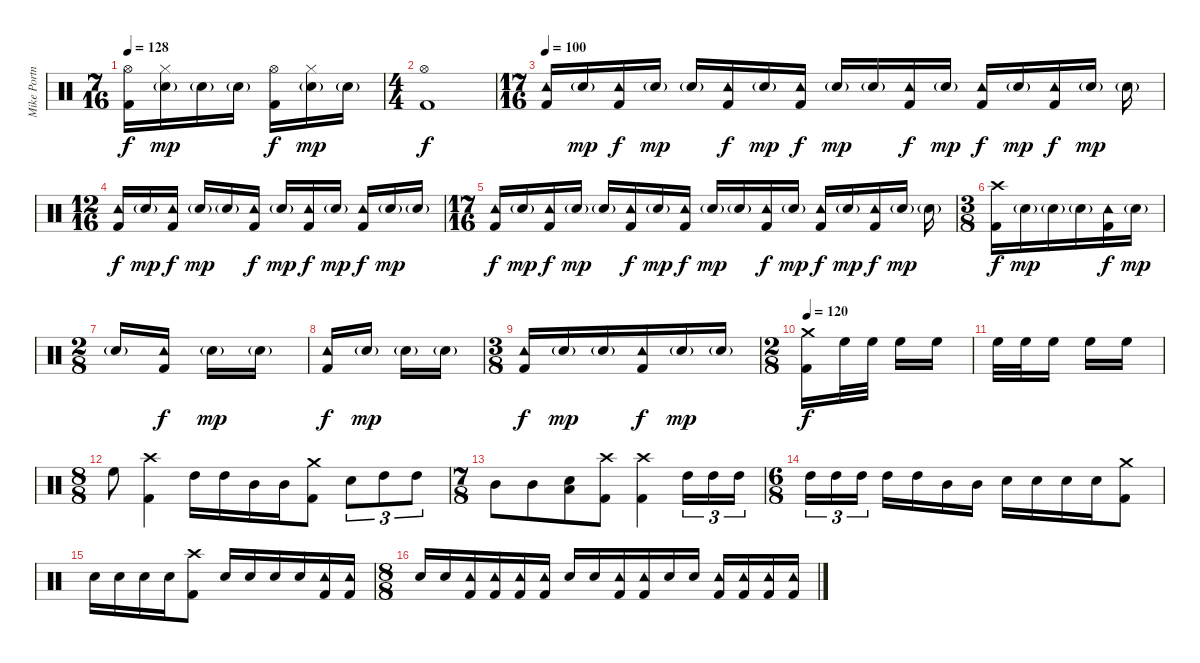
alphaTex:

\track ("Mike Portnoy" "Mike Portn") {instrument percussion}
\staff {score}
\articulation defaults
\ts (7 16)
\tempo 128
\clef neutral
\ks c
("Hi-Hat (open)" "Kick (hit) 2").16{dy f} ("Hi-Hat (closed)" "Snare (hit) 2"{g}).16{dy mp} "Snare (hit) 2"{g}.16 "Snare (hit) 2"{g}.16 ("Hi-Hat (open)" "Kick (hit) 2").16{dy f} ("Hi-Hat (closed)" "Snare (hit) 2"{g}).16{dy mp} "Snare (hit) 2"{g}.16 |
\ts (4 4)
("Hi-Hat (open)" "Kick (hit) 2").1{dy f} |
\ts (17 16)
\tempo 100
("Tambourine (hit)" "Kick (hit) 2").16 "Snare (hit) 2"{g}.16{dy mp} ("Tambourine (hit)" "Kick (hit) 2").16{dy f} "Snare (hit) 2"{g}.16{dy mp} "Snare (hit) 2"{g}.16 ("Tambourine (hit)" "Kick (hit) 2").16{dy f} "Snare (hit) 2"{g}.16{dy mp} ("Tambourine (hit)" "Kick (hit) 2").16{dy f} "Snare (hit) 2"{g}.16{dy mp} "Snare (hit) 2"{g}.16 ("Tambourine (hit)" "Kick (hit) 2").16{dy f} "Snare (hit) 2"{g}.16{dy mp} ("Tambourine (hit)" "Kick (hit) 2").16{dy f} "Snare (hit) 2"{g}.16{dy mp} ("Tambourine (hit)" "Kick (hit) 2").16{dy f} "Snare (hit) 2"{g}.16{dy mp} "Snare (hit) 2"{g}.16 |
\ts (12 16)
("Tambourine (hit)" "Kick (hit) 2").16{dy f} "Snare (hit) 2"{g}.16{dy mp} ("Tambourine (hit)" "Kick (hit) 2").16{dy f} "Snare (hit) 2"{g}.16{dy mp} "Snare (hit) 2"{g}.16 ("Tambourine (hit)" "Kick (hit) 2").16{dy f} "Snare (hit) 2"{g}.16{dy mp} ("Tambourine (hit)" "Kick (hit) 2").16{dy f} "Snare (hit) 2"{g}.16{dy mp} ("Tambourine (hit)" "Kick (hit) 2").16{dy f} "Snare (hit) 2"{g}.16{dy mp} "Snare (hit) 2"{g}.16 |
\ts (17 16)
("Tambourine (hit)" "Kick (hit) 2").16{dy f} "Snare (hit) 2"{g}.16{dy mp} ("Tambourine (hit)" "Kick (hit) 2").16{dy f} "Snare (hit) 2"{g}.16{dy mp} "Snare (hit) 2"{g}.16 ("Tambourine (hit)" "Kick (hit) 2").16{dy f} "Snare (hit) 2"{g}.16{dy mp} ("Tambourine (hit)" "Kick (hit) 2").16{dy f} "Snare (hit) 2"{g}.16{dy mp} "Snare (hit) 2"{g}.16 ("Tambourine (hit)" "Kick (hit) 2").16{dy f} "Snare (hit) 2"{g}.16{dy mp} ("Tambourine (hit)" "Kick (hit) 2").16{dy f} "Snare (hit) 2"{g}.16{dy mp} ("Tambourine (hit)" "Kick (hit) 2").16{dy f} "Snare (hit) 2"{g}.16{dy mp} "Snare (hit) 2"{g}.16 |
\ts (3 8)
("Crash high (hit)" "Kick (hit) 2").16{dy f} "Snare (hit) 2"{g}.16{dy mp} "Snare (hit) 2"{g}.16 "Snare (hit) 2"{g}.16 ("Tambourine (hit)" "Kick (hit) 2").16{dy f} "Snare (hit) 2"{g}.16{dy mp} |
\ts (2 8)
"Snare (hit) 2"{g}.16 ("Tambourine (hit)" "Kick (hit) 2").16{dy f} "Snare (hit) 2"{g}.16{dy mp} "Snare (hit) 2"{g}.16 |
("Tambourine (hit)" "Kick (hit) 2").16{dy f} "Snare (hit) 2"{g}.16{dy mp} "Snare (hit) 2"{g}.16 "Snare (hit) 2"{g}.16 |
\ts (3 8)
("Tambourine (hit)" "Kick (hit) 2").16{dy f} "Snare (hit) 2"{g}.16{dy mp} "Snare (hit) 2"{g}.16 ("Tambourine (hit)" "Kick (hit) 2").16{dy f} "Snare (hit) 2"{g}.16{dy mp} "Snare (hit) 2"{g}.16 |
\ts (2 8)
\tempo 120
("Crash medium (hit)" "Kick (hit) 2").16{dy f} "High Floor Tom (hit)".32 "High Floor Tom (hit)".32 "High Floor Tom (hit)".16 "High Floor Tom (hit)".16 |
"High Floor Tom (hit)".32 "High Floor Tom (hit)".32 "High Floor Tom (hit)".16 "High Floor Tom (hit)".16 "High Floor Tom (hit)".16 |
\ts (8 8)
"High Floor Tom (hit)".8 ("Crash high (hit)" "Kick (hit) 2").4 "High Tom (hit)".16 "High Tom (hit)".16 "Mid Tom (hit)".16 "Mid Tom (hit)".16 ("Crash medium (hit)" "Kick (hit) 2").8 "Snare (hit) 2".8{tu (3 2)} "High Tom (hit)".8{tu (3 2)} "High Tom (hit)".8{tu (3 2)} |
\ts (7 8)
"Mid Tom (hit)".8 "Mid Tom (hit)".8 ("Low Tom (hit)" "Snare (hit) 2").8 ("Crash high (hit)" "Kick (hit) 2").8 ("Crash high (hit)" "Kick (hit) 2").4 "High Tom (hit)".16{tu (3 2)} "High Tom (hit)".16{tu (3 2)} "High Tom (hit)".16{tu (3 2)} |
\ts (6 8)
"High Tom (hit)".16{tu (3 2)} "High Tom (hit)".16{tu (3 2)} "High Tom (hit)".16{tu (3 2)} "High Tom (hit)".16 "High Tom (hit)".16 "Mid Tom (hit)".16 "Mid Tom (hit)".16 "Snare (hit) 2".16 "Snare (hit) 2".16 "Snare (hit) 2".16 "Snare (hit) 2".16 ("Crash medium (hit)" "Kick (hit) 2").8 |
"Snare (hit) 2".16 "Snare (hit) 2".16 "Snare (hit) 2".16 "Snare (hit) 2".16 ("Crash high (hit)" "Kick (hit) 2").8 "Snare (hit) 2".16 "Snare (hit) 2".16 "Snare (hit) 2".16 "Snare (hit) 2".16 ("Tambourine (hit)" "Kick (hit) 2").16 ("Tambourine (hit)" "Kick (hit) 2").16 |
\ts (8 8)
"Snare (hit) 2".16 "Snare (hit) 2".16 ("Tambourine (hit)" "Kick (hit) 2").16 ("Tambourine (hit)" "Kick (hit) 2").16 ("Tambourine (hit)" "Kick (hit) 2").16 ("Tambourine (hit)" "Kick (hit) 2").16 "Snare (hit) 2".16 "Snare (hit) 2".16 ("Tambourine (hit)" "Kick (hit) 2").16 ("Tambourine (hit)" "Kick (hit) 2").16 "Snare (hit) 2".16 "Snare (hit) 2".16 ("Tambourine (hit)" "Kick (hit) 2").16 ("Tambourine (hit)" "Kick (hit) 2").16 ("Tambourine (hit)" "Kick (hit) 2").16 ("Tambourine (hit)" "Kick (hit) 2").16
